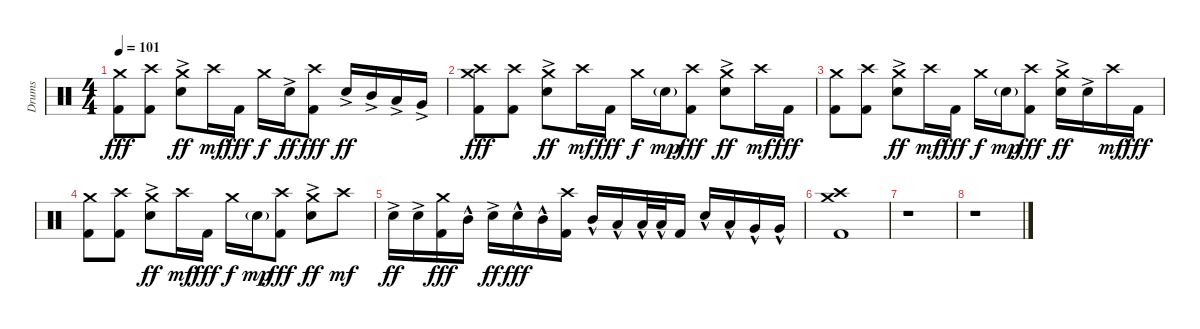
\track ("Drums" "Drums") {instrument percussion}
\staff {score}
\articulation defaults
\ts (4 4)
\tempo 101
\clef neutral
\ks c
("Crash medium (hit)" "Kick (hit) 2").8{dy fff} ("Crash high (hit)" "Kick (hit) 2").8 ("Crash medium (hit)" "Electric Snare (hit)"{ac}).8{dy ff} "Crash high (hit)".16{dy mf} "Kick (hit) 2".16{dy fff} "Crash medium (hit)".16{dy f} "Electric Snare (hit)"{ac}.16{dy ff} ("Crash high (hit)" "Kick (hit) 2").8{dy fff} "Electric Snare (hit)"{ac}.16{dy ff} "Mid Tom (hit)"{ac}.16 "Low Tom (hit)"{ac}.16 "Very Low Tom (hit)"{ac}.16 |
("Crash medium (hit)" "Crash high (hit)" "Kick (hit) 2").8{dy fff} ("Crash high (hit)" "Kick (hit) 2").8 ("Crash medium (hit)" "Electric Snare (hit)"{ac}).8{dy ff} "Crash high (hit)".16{dy mf} "Kick (hit) 2".16{dy fff} "Crash medium (hit)".16{dy f} "Snare (hit) 2"{g}.16{dy mp} ("Crash high (hit)" "Kick (hit) 2").8{dy fff} ("Crash medium (hit)" "Electric Snare (hit)"{ac}).8{dy ff} "Crash high (hit)".16{dy mf} "Kick (hit) 2".16{dy fff} |
("Crash medium (hit)" "Kick (hit) 2").8 ("Crash high (hit)" "Kick (hit) 2").8 ("Crash medium (hit)" "Electric Snare (hit)"{ac}).8{dy ff} "Crash high (hit)".16{dy mf} "Kick (hit) 2".16{dy fff} "Crash medium (hit)".16{dy f} "Snare (hit) 2"{g}.16{dy mp} ("Crash high (hit)" "Kick (hit) 2").8{dy fff} ("Crash medium (hit)" "Electric Snare (hit)"{ac}).16{dy ff} "Electric Snare (hit)"{ac}.16 "Crash high (hit)".16{dy mf} "Kick (hit) 2".16{dy fff} |
("Crash medium (hit)" "Kick (hit) 2").8 ("Crash high (hit)" "Kick (hit) 2").8 ("Crash medium (hit)" "Electric Snare (hit)"{ac}).8{dy ff} "Crash high (hit)".16{dy mf} "Kick (hit) 2".16{dy fff} "Crash medium (hit)".16{dy f} "Snare (hit) 2"{g}.16{dy mp} ("Crash high (hit)" "Kick (hit) 2").8{dy fff} ("Crash medium (hit)" "Electric Snare (hit)"{ac}).8{dy ff} "Crash high (hit)".8{dy mf} |
"Electric Snare (hit)"{ac}.16{dy ff} "Electric Snare (hit)"{ac}.16 ("Crash medium (hit)" "Kick (hit) 2").16{dy fff} "Mid Tom (hit)"{hac}.16 "Electric Snare (hit)"{ac}.16{dy ff} "Electric Snare (hit)"{hac}.16{dy fff} "Mid Tom (hit)"{hac}.16 ("Crash high (hit)" "Kick (hit) 2").16 "Mid Tom (hit)"{hac}.16 "Low Tom (hit)"{hac}.16 "Low Tom (hit)"{hac}.32 "Low Tom (hit)"{hac}.32 "Kick (hit) 2".16 "Electric Snare (hit)"{hac}.16 "Low Tom (hit)"{hac}.16 "Very Low Tom (hit)"{hac}.16 "Very Low Tom (hit)"{hac}.16 |
("Crash medium (hit)" "Crash high (hit)" "Kick (hit) 2").1 |
r.1 |
r.1
